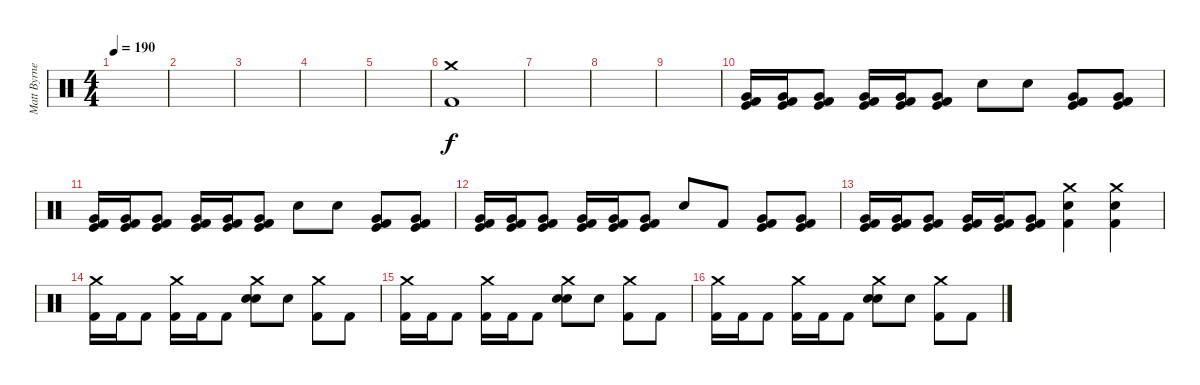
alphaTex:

\track ("Matt Byrne (Drums)" "Matt Byrne") {instrument percussion}
\staff {score}
\articulation defaults
\ts (4 4)
\tempo 190
\clef neutral
\ks c
|
|
|
|
|
("Crash medium (hit)" "Kick (hit) 2").1 |
|
|
|
("Very Low Tom (hit)" "Kick (hit)" "Kick (hit) 2").16 ("Very Low Tom (hit)" "Kick (hit)" "Kick (hit) 2").16 ("Very Low Tom (hit)" "Kick (hit)" "Kick (hit) 2").8 ("Very Low Tom (hit)" "Kick (hit)" "Kick (hit) 2").16 ("Very Low Tom (hit)" "Kick (hit)" "Kick (hit) 2").16 ("Very Low Tom (hit)" "Kick (hit)" "Kick (hit) 2").8 "Snare (hit)"{x}.8 "Snare (hit)"{x}.8 ("Very Low Tom (hit)" "Kick (hit)" "Kick (hit) 2").8 ("Very Low Tom (hit)" "Kick (hit)" "Kick (hit) 2").8 |
("Very Low Tom (hit)" "Kick (hit)" "Kick (hit) 2").16 ("Very Low Tom (hit)" "Kick (hit)" "Kick (hit) 2").16 ("Very Low Tom (hit)" "Kick (hit)" "Kick (hit) 2").8 ("Very Low Tom (hit)" "Kick (hit)" "Kick (hit) 2").16 ("Very Low Tom (hit)" "Kick (hit)" "Kick (hit) 2").16 ("Very Low Tom (hit)" "Kick (hit)" "Kick (hit) 2").8 "Snare (hit)"{x}.8 "Snare (hit)"{x}.8 ("Very Low Tom (hit)" "Kick (hit)" "Kick (hit) 2").8 ("Very Low Tom (hit)" "Kick (hit)" "Kick (hit) 2").8 |
("Very Low Tom (hit)" "Kick (hit)" "Kick (hit) 2").16 ("Very Low Tom (hit)" "Kick (hit)" "Kick (hit) 2").16 ("Very Low Tom (hit)" "Kick (hit)" "Kick (hit) 2").8 ("Very Low Tom (hit)" "Kick (hit)" "Kick (hit) 2").16 ("Very Low Tom (hit)" "Kick (hit)" "Kick (hit) 2").16 ("Very Low Tom (hit)" "Kick (hit)" "Kick (hit) 2").8 "Snare (hit)"{x}.8 "Kick (hit) 2"{x}.8 ("Very Low Tom (hit)" "Kick (hit)" "Kick (hit) 2").8 ("Very Low Tom (hit)" "Kick (hit)" "Kick (hit) 2").8 |
("Very Low Tom (hit)" "Kick (hit)" "Kick (hit) 2").16 ("Very Low Tom (hit)" "Kick (hit)" "Kick (hit) 2").16 ("Very Low Tom (hit)" "Kick (hit)" "Kick (hit) 2").8 ("Very Low Tom (hit)" "Kick (hit)" "Kick (hit) 2").16 ("Very Low Tom (hit)" "Kick (hit)" "Kick (hit) 2").16 ("Very Low Tom (hit)" "Kick (hit)" "Kick (hit) 2").8 ("Crash medium (hit)" "Snare (hit) 2" "Kick (hit) 2").4 ("Crash medium (hit)" "Snare (hit) 2" "Kick (hit) 2").4 |
("Crash medium (hit)" "Kick (hit) 2").16 "Kick (hit) 2".16 "Kick (hit) 2".8 ("Crash medium (hit)" "Kick (hit) 2").16 "Kick (hit) 2".16 "Kick (hit) 2".8 ("Crash medium (hit)" "Snare (hit) 2" "Snare (hit)"{x}).8 "Snare (hit)"{x}.8 ("Crash medium (hit)" "Kick (hit) 2").8 "Kick (hit) 2".8 |
("Crash medium (hit)" "Kick (hit) 2").16 "Kick (hit) 2".16 "Kick (hit) 2".8 ("Crash medium (hit)" "Kick (hit) 2").16 "Kick (hit) 2".16 "Kick (hit) 2".8 ("Crash medium (hit)" "Snare (hit) 2" "Snare (hit)"{x}).8 "Snare (hit)"{x}.8 ("Crash medium (hit)" "Kick (hit) 2").8 "Kick (hit) 2".8 |
("Crash medium (hit)" "Kick (hit) 2").16 "Kick (hit) 2".16 "Kick (hit) 2".8 ("Crash medium (hit)" "Kick (hit) 2").16 "Kick (hit) 2".16 "Kick (hit) 2".8 ("Crash medium (hit)" "Snare (hit) 2" "Snare (hit)"{x}).8 "Snare (hit)"{x}.8 ("Crash medium (hit)" "Kick (hit) 2").8 "Kick (hit) 2".8
